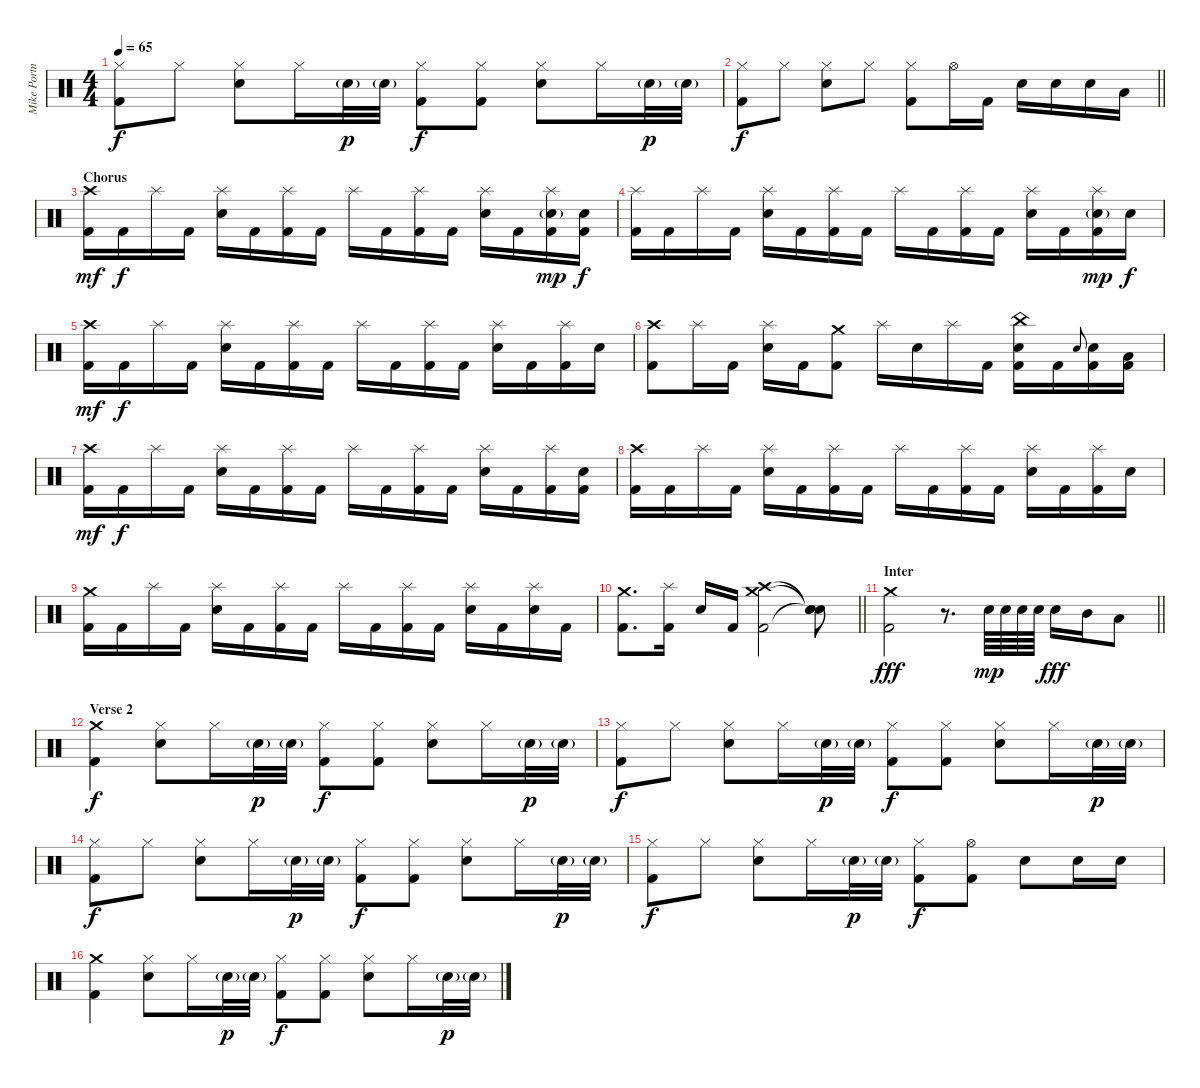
\track ("Mike Portnoy [Drums]" "Mike Portn") {instrument percussion}
\staff {score}
\articulation defaults
\ts (4 4)
\tempo 65
\clef neutral
\ks c
("Hi-Hat (closed)" "Kick (hit) 2").8{dy f} "Hi-Hat (closed)".8 ("Hi-Hat (closed)" "Electric Snare (hit)").8 "Hi-Hat (closed)".16 "Electric Snare (hit)"{g}.32{dy p} "Electric Snare (hit)"{g}.32 ("Hi-Hat (closed)" "Kick (hit) 2").8{dy f} ("Hi-Hat (closed)" "Kick (hit) 2").8 ("Hi-Hat (closed)" "Electric Snare (hit)").8 "Hi-Hat (closed)".16 "Electric Snare (hit)"{g}.32{dy p} "Electric Snare (hit)"{g}.32 |
\barLineRight lightlight
("Hi-Hat (closed)" "Kick (hit) 2").8{dy f} "Hi-Hat (closed)".8 ("Hi-Hat (closed)" "Electric Snare (hit)").8 "Hi-Hat (closed)".8 ("Hi-Hat (closed)" "Kick (hit) 2").8 "Hi-Hat (open)".16 "Kick (hit) 2".16 "Electric Snare (hit)".16 "Electric Snare (hit)".16 "Electric Snare (hit)".16 "Low Tom (hit)".16 |
\section ("" "Chorus")
("Crash high (hit)" "Kick (hit) 2").16{dy mf} "Kick (hit) 2".16{dy f} "Splash (hit)".16 "Kick (hit) 2".16 ("Splash (hit)" "Electric Snare (hit)").16 "Kick (hit) 2".16 ("Splash (hit)" "Kick (hit) 2").16 "Kick (hit) 2".16 "Splash (hit)".16 "Kick (hit) 2".16 ("Splash (hit)" "Kick (hit) 2").16 "Kick (hit) 2".16 ("Splash (hit)" "Electric Snare (hit)").16 "Kick (hit) 2".16 ("Splash (hit)" "Electric Snare (hit)"{g} "Kick (hit) 2").16{dy mp} ("Electric Snare (hit)" "Kick (hit) 2").16{dy f} |
("Splash (hit)" "Kick (hit) 2").16 "Kick (hit) 2".16 "Splash (hit)".16 "Kick (hit) 2".16 ("Splash (hit)" "Electric Snare (hit)").16 "Kick (hit) 2".16 ("Splash (hit)" "Kick (hit) 2").16 "Kick (hit) 2".16 "Splash (hit)".16 "Kick (hit) 2".16 ("Splash (hit)" "Kick (hit) 2").16 "Kick (hit) 2".16 ("Splash (hit)" "Electric Snare (hit)").16 "Kick (hit) 2".16 ("Splash (hit)" "Electric Snare (hit)"{g} "Kick (hit) 2").16{dy mp} "Electric Snare (hit)".16{dy f} |
("Crash high (hit)" "Kick (hit) 2").16{dy mf} "Kick (hit) 2".16{dy f} "Splash (hit)".16 "Kick (hit) 2".16 ("Splash (hit)" "Electric Snare (hit)").16 "Kick (hit) 2".16 ("Splash (hit)" "Kick (hit) 2").16 "Kick (hit) 2".16 "Splash (hit)".16 "Kick (hit) 2".16 ("Splash (hit)" "Kick (hit) 2").16 "Kick (hit) 2".16 ("Splash (hit)" "Electric Snare (hit)").16 "Kick (hit) 2".16 ("Splash (hit)" "Kick (hit) 2").16 "Electric Snare (hit)".16 |
("Crash high (hit)" "Kick (hit) 2").8 "Splash (hit)".16 "Kick (hit) 2".16 ("Splash (hit)" "Electric Snare (hit)").16 "Kick (hit) 2".16 ("Crash medium (hit)" "Kick (hit) 2").8 "Splash (hit)".16 "Electric Snare (hit)".16 "Splash (hit)".16 "Kick (hit) 2".16 ("China (hit)" "Electric Snare (hit)" "Kick (hit) 2").16 "Kick (hit) 2".16 "Electric Snare (hit)".8{gr onbeat} ("Electric Snare (hit)" "Kick (hit) 2").16 ("Low Tom (hit)" "Kick (hit) 2").16 |
("Crash high (hit)" "Kick (hit) 2").16{dy mf} "Kick (hit) 2".16{dy f} "Splash (hit)".16 "Kick (hit) 2".16 ("Splash (hit)" "Electric Snare (hit)").16 "Kick (hit) 2".16 ("Splash (hit)" "Kick (hit) 2").16 "Kick (hit) 2".16 "Splash (hit)".16 "Kick (hit) 2".16 ("Splash (hit)" "Kick (hit) 2").16 "Kick (hit) 2".16 ("Splash (hit)" "Electric Snare (hit)").16 "Kick (hit) 2".16 ("Splash (hit)" "Kick (hit) 2").16 ("Electric Snare (hit)" "Kick (hit) 2").16 |
("Crash high (hit)" "Kick (hit) 2").16 "Kick (hit) 2".16 "Splash (hit)".16 "Kick (hit) 2".16 ("Splash (hit)" "Electric Snare (hit)").16 "Kick (hit) 2".16 ("Splash (hit)" "Kick (hit) 2").16 "Kick (hit) 2".16 "Splash (hit)".16 "Kick (hit) 2".16 ("Splash (hit)" "Kick (hit) 2").16 "Kick (hit) 2".16 ("Splash (hit)" "Electric Snare (hit)").16 "Kick (hit) 2".16 ("Splash (hit)" "Kick (hit) 2").16 "Electric Snare (hit)".16 |
("Crash medium (hit)" "Kick (hit) 2").16 "Kick (hit) 2".16 "Splash (hit)".16 "Kick (hit) 2".16 ("Splash (hit)" "Electric Snare (hit)").16 "Kick (hit) 2".16 ("Splash (hit)" "Kick (hit) 2").16 "Kick (hit) 2".16 "Splash (hit)".16 "Kick (hit) 2".16 ("Splash (hit)" "Kick (hit) 2").16 "Kick (hit) 2".16 ("Splash (hit)" "Electric Snare (hit)").16 "Kick (hit) 2".16 ("Splash (hit)" "Electric Snare (hit)").16 "Kick (hit) 2".16 |
\barLineRight lightlight
("Crash medium (hit)" "Kick (hit) 2").8{d} ("Splash (hit)" "Kick (hit) 2").16 "Electric Snare (hit)".16 "Kick (hit) 2".16 ("Crash high (hit)" "Crash medium (hit)" "Kick (hit) 2").2 ("Snare (hit)"{t} "Snare (hit)"{t} "Snare (hit)"{t}).8 |
\section ("" "Inter")
\barLineRight lightlight
("Crash medium (hit)" "Kick (hit) 2").2{dy fff} r.8{d} "Electric Snare (hit)".64{dy mp} "Electric Snare (hit)".64 "Electric Snare (hit)".64 "Electric Snare (hit)".64 "Electric Snare (hit)".16{dy fff} "Mid Tom (hit)".16 "Low Tom (hit)".8 |
\section ("" "Verse 2")
("Crash medium (hit)" "Kick (hit) 2").4{dy f} ("Hi-Hat (closed)" "Electric Snare (hit)").8 "Hi-Hat (closed)".16 "Electric Snare (hit)"{g}.32{dy p} "Electric Snare (hit)"{g}.32 ("Hi-Hat (closed)" "Kick (hit) 2").8{dy f} ("Hi-Hat (closed)" "Kick (hit) 2").8 ("Hi-Hat (closed)" "Electric Snare (hit)").8 "Hi-Hat (closed)".16 "Electric Snare (hit)"{g}.32{dy p} "Electric Snare (hit)"{g}.32 |
("Hi-Hat (closed)" "Kick (hit) 2").8{dy f} "Hi-Hat (closed)".8 ("Hi-Hat (closed)" "Electric Snare (hit)").8 "Hi-Hat (closed)".16 "Electric Snare (hit)"{g}.32{dy p} "Electric Snare (hit)"{g}.32 ("Hi-Hat (closed)" "Kick (hit) 2").8{dy f} ("Hi-Hat (closed)" "Kick (hit) 2").8 ("Hi-Hat (closed)" "Electric Snare (hit)").8 "Hi-Hat (closed)".16 "Electric Snare (hit)"{g}.32{dy p} "Electric Snare (hit)"{g}.32 |
("Hi-Hat (closed)" "Kick (hit) 2").8{dy f} "Hi-Hat (closed)".8 ("Hi-Hat (closed)" "Electric Snare (hit)").8 "Hi-Hat (closed)".16 "Electric Snare (hit)"{g}.32{dy p} "Electric Snare (hit)"{g}.32 ("Hi-Hat (closed)" "Kick (hit) 2").8{dy f} ("Hi-Hat (closed)" "Kick (hit) 2").8 ("Hi-Hat (closed)" "Electric Snare (hit)").8 "Hi-Hat (closed)".16 "Electric Snare (hit)"{g}.32{dy p} "Electric Snare (hit)"{g}.32 |
("Hi-Hat (closed)" "Kick (hit) 2").8{dy f} "Hi-Hat (closed)".8 ("Hi-Hat (closed)" "Electric Snare (hit)").8 "Hi-Hat (closed)".16 "Electric Snare (hit)"{g}.32{dy p} "Electric Snare (hit)"{g}.32 ("Hi-Hat (closed)" "Kick (hit) 2").8{dy f} ("Hi-Hat (open)" "Kick (hit) 2").8 "Electric Snare (hit)".8 "Electric Snare (hit)".16 "Electric Snare (hit)".16 |
("Crash medium (hit)" "Kick (hit) 2").4 ("Hi-Hat (closed)" "Electric Snare (hit)").8 "Hi-Hat (closed)".16 "Electric Snare (hit)"{g}.32{dy p} "Electric Snare (hit)"{g}.32 ("Hi-Hat (closed)" "Kick (hit) 2").8{dy f} ("Hi-Hat (closed)" "Kick (hit) 2").8 ("Hi-Hat (closed)" "Electric Snare (hit)").8 "Hi-Hat (closed)".16 "Electric Snare (hit)"{g}.32{dy p} "Electric Snare (hit)"{g}.32
